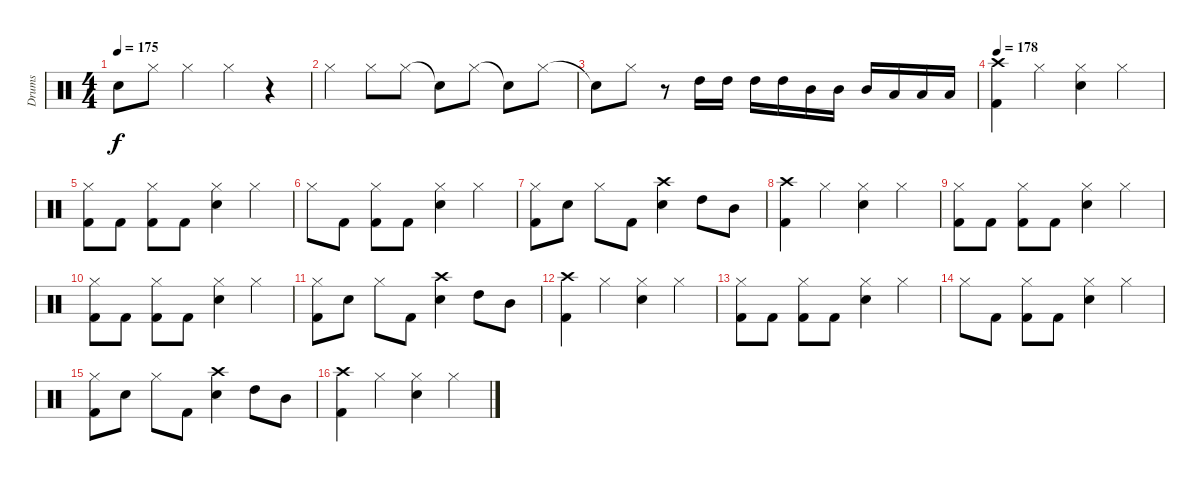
\track ("Drums" "Drums") {instrument percussion}
\staff {score}
\articulation defaults
\ts (4 4)
\tempo 175
\clef neutral
\ks c "Snare (hit)"{t}.8{dy f} "Hi-Hat (closed)".8 "Hi-Hat (closed)".4 "Hi-Hat (closed)".4
r.4 |
"Hi-Hat (closed)".4 "Hi-Hat (closed)".8 "Hi-Hat (closed)".8 "Snare (hit)"{t}.8 "Hi-Hat (closed)".8 "Snare (hit)"{t}.8 "Hi-Hat (closed)".8 |
"Snare (hit)"{t}.8 "Hi-Hat (closed)".8 r.8 "High Tom (hit)".16 "High Tom (hit)".16 "High Tom (hit)".16 "High Tom (hit)".16 "Mid Tom (hit)".16 "Mid Tom (hit)".16 "Mid Tom (hit)".16 "Low Tom (hit)".16 "Low Tom (hit)".16 "Low Tom (hit)".16 |
\tempo 178
("Crash high (hit)" "Kick (hit) 2").4 "Hi-Hat (closed)".4 ("Hi-Hat (closed)" "Electric Snare (hit)").4 "Hi-Hat (closed)".4 |
("Hi-Hat (closed)" "Kick (hit) 2").8 "Kick (hit) 2".8 ("Hi-Hat (closed)" "Kick (hit) 2").8 "Kick (hit) 2".8 ("Hi-Hat (closed)" "Electric Snare (hit)").4 "Hi-Hat (closed)".4 |
"Hi-Hat (closed)".8 "Kick (hit) 2".8 ("Hi-Hat (closed)" "Kick (hit) 2").8 "Kick (hit) 2".8 ("Hi-Hat (closed)" "Electric Snare (hit)").4 "Hi-Hat (closed)".4 |
("Hi-Hat (closed)" "Kick (hit) 2").8 "Electric Snare (hit)".8 "Hi-Hat (closed)".8 "Kick (hit) 2".8 ("Crash high (hit)" "Electric Snare (hit)").4 "High Tom (hit)".8 "Mid Tom (hit)".8 |
("Crash high (hit)" "Kick (hit) 2").4 "Hi-Hat (closed)".4 ("Hi-Hat (closed)" "Electric Snare (hit)").4 "Hi-Hat (closed)".4 |
("Hi-Hat (closed)" "Kick (hit) 2").8 "Kick (hit) 2".8 ("Hi-Hat (closed)" "Kick (hit) 2").8 "Kick (hit) 2".8 ("Hi-Hat (closed)" "Electric Snare (hit)").4 "Hi-Hat (closed)".4 |
("Hi-Hat (closed)" "Kick (hit) 2").8 "Kick (hit) 2".8 ("Hi-Hat (closed)" "Kick (hit) 2").8 "Kick (hit) 2".8 ("Hi-Hat (closed)" "Electric Snare (hit)").4 "Hi-Hat (closed)".4 |
("Hi-Hat (closed)" "Kick (hit) 2").8 "Electric Snare (hit)".8 "Hi-Hat (closed)".8 "Kick (hit) 2".8 ("Crash high (hit)" "Electric Snare (hit)").4 "High Tom (hit)".8 "Mid Tom (hit)".8 |
("Crash high (hit)" "Kick (hit) 2").4 "Hi-Hat (closed)".4 ("Hi-Hat (closed)" "Electric Snare (hit)").4 "Hi-Hat (closed)".4 |
("Hi-Hat (closed)" "Kick (hit) 2").8 "Kick (hit) 2".8 ("Hi-Hat (closed)" "Kick (hit) 2").8 "Kick (hit) 2".8 ("Hi-Hat (closed)" "Electric Snare (hit)").4 "Hi-Hat (closed)".4 |
"Hi-Hat (closed)".8 "Kick (hit) 2".8 ("Hi-Hat (closed)" "Kick (hit) 2").8 "Kick (hit) 2".8 ("Hi-Hat (closed)" "Electric Snare (hit)").4 "Hi-Hat (closed)".4 |
("Hi-Hat (closed)" "Kick (hit) 2").8 "Electric Snare (hit)".8 "Hi-Hat (closed)".8 "Kick (hit) 2".8 ("Crash high (hit)" "Electric Snare (hit)").4 "High Tom (hit)".8 "Mid Tom (hit)".8 |
("Crash high (hit)" "Kick (hit) 2").4 "Hi-Hat (closed)".4 ("Hi-Hat (closed)" "Electric Snare (hit)").4 "Hi-Hat (closed)".4
